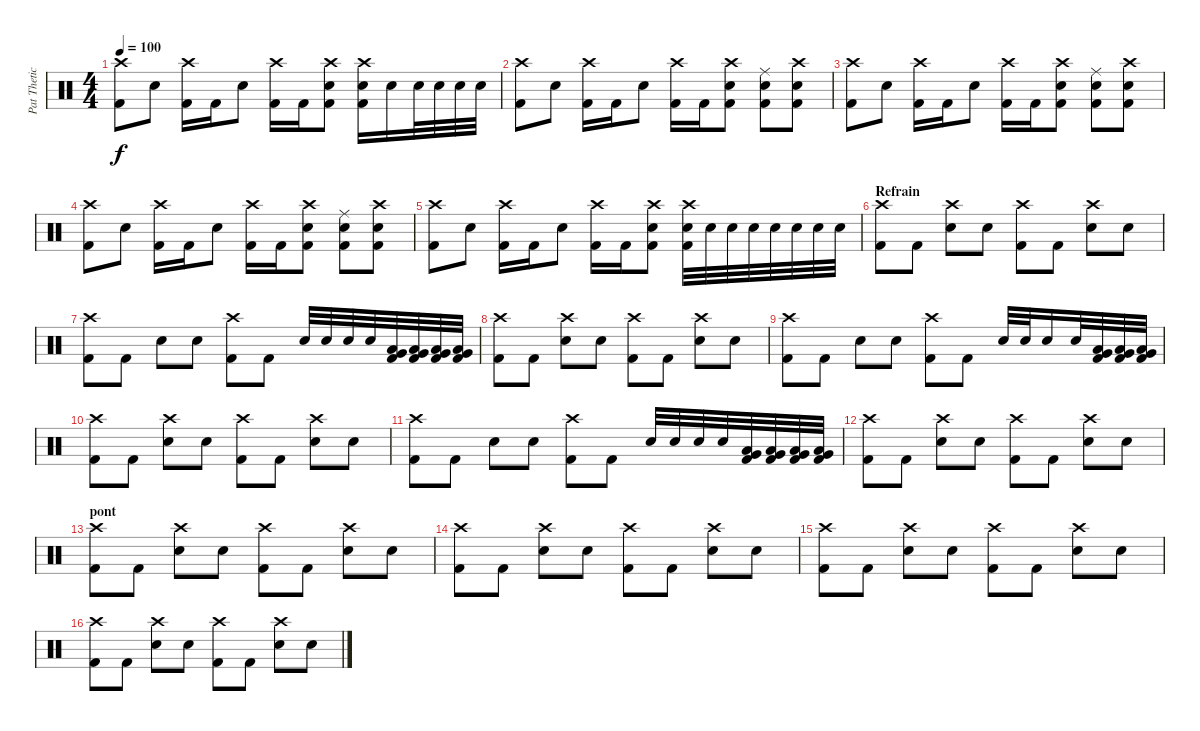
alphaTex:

\track ("Pat Thetic" "Pat Thetic") {instrument percussion}
\staff {score}
\articulation defaults
\ts (4 4)
\tempo 100
\clef neutral
\ks c
("Crash high (hit)" "Kick (hit) 2").8{dy f} "Snare (hit) 2".8 ("Crash high (hit)" "Kick (hit) 2").16 "Kick (hit) 2".16 "Snare (hit) 2".8 ("Crash high (hit)" "Kick (hit) 2").16 "Kick (hit) 2".16 ("Kick (hit) 2" "Crash high (hit)" "Snare (hit) 2").8 ("Kick (hit) 2" "Crash high (hit)" "Snare (hit) 2").16 "Snare (hit) 2".16 "Snare (hit) 2".32 "Snare (hit) 2".32 "Snare (hit) 2".32 "Snare (hit) 2".32 |
("Crash high (hit)" "Kick (hit) 2").8 "Snare (hit) 2".8 ("Crash high (hit)" "Kick (hit) 2").16 "Kick (hit) 2".16 "Snare (hit) 2".8 ("Crash high (hit)" "Kick (hit) 2").16 "Kick (hit) 2".16 ("Kick (hit) 2" "Crash high (hit)" "Snare (hit) 2").8 ("Kick (hit) 2" "Ride (middle)" "Snare (hit) 2").8 ("Kick (hit) 2" "Crash high (hit)" "Snare (hit) 2").8 |
("Crash high (hit)" "Kick (hit) 2").8 "Snare (hit) 2".8 ("Crash high (hit)" "Kick (hit) 2").16 "Kick (hit) 2".16 "Snare (hit) 2".8 ("Crash high (hit)" "Kick (hit) 2").16 "Kick (hit) 2".16 ("Kick (hit) 2" "Crash high (hit)" "Snare (hit) 2").8 ("Kick (hit) 2" "Ride (middle)" "Snare (hit) 2").8 ("Kick (hit) 2" "Crash high (hit)" "Snare (hit) 2").8 |
("Crash high (hit)" "Kick (hit) 2").8 "Snare (hit) 2".8 ("Crash high (hit)" "Kick (hit) 2").16 "Kick (hit) 2".16 "Snare (hit) 2".8 ("Crash high (hit)" "Kick (hit) 2").16 "Kick (hit) 2".16 ("Kick (hit) 2" "Crash high (hit)" "Snare (hit) 2").8 ("Kick (hit) 2" "Ride (middle)" "Snare (hit) 2").8 ("Kick (hit) 2" "Crash high (hit)" "Snare (hit) 2").8 |
("Crash high (hit)" "Kick (hit) 2").8 "Snare (hit) 2".8 ("Crash high (hit)" "Kick (hit) 2").16 "Kick (hit) 2".16 "Snare (hit) 2".8 ("Crash high (hit)" "Kick (hit) 2").16 "Kick (hit) 2".16 ("Kick (hit) 2" "Crash high (hit)" "Snare (hit) 2").8 ("Kick (hit) 2" "Crash high (hit)" "Snare (hit) 2").32 "Snare (hit) 2".32 "Snare (hit) 2".32 "Snare (hit) 2".32 "Snare (hit) 2".32 "Snare (hit) 2".32 "Snare (hit) 2".32 "Snare (hit) 2".32 |
\section ("" "Refrain")
("Crash high (hit)" "Kick (hit) 2").8 "Kick (hit) 2".8 ("Crash high (hit)" "Snare (hit) 2").8 "Snare (hit) 2".8 ("Crash high (hit)" "Kick (hit) 2").8 "Kick (hit) 2".8 ("Crash high (hit)" "Snare (hit) 2").8 "Snare (hit) 2".8 |
("Crash high (hit)" "Kick (hit) 2").8 "Kick (hit) 2".8 "Snare (hit) 2".8 "Snare (hit) 2".8 ("Crash high (hit)" "Kick (hit) 2").8 "Kick (hit) 2".8 "Snare (hit) 2".32 "Snare (hit) 2".32 "Snare (hit) 2".32 "Snare (hit) 2".32 ("Kick (hit) 2" "Low Floor Tom (hit)" "Very Low Tom (hit)").32 ("Kick (hit) 2" "Low Floor Tom (hit)" "Very Low Tom (hit)").32 ("Kick (hit) 2" "Low Floor Tom (hit)" "Very Low Tom (hit)").32 ("Kick (hit) 2" "Low Floor Tom (hit)" "Very Low Tom (hit)").32 |
("Crash high (hit)" "Kick (hit) 2").8 "Kick (hit) 2".8 ("Crash high (hit)" "Snare (hit) 2").8 "Snare (hit) 2".8 ("Crash high (hit)" "Kick (hit) 2").8 "Kick (hit) 2".8 ("Crash high (hit)" "Snare (hit) 2").8 "Snare (hit) 2".8 |
("Crash high (hit)" "Kick (hit) 2").8 "Kick (hit) 2".8 "Snare (hit) 2".8 "Snare (hit) 2".8 ("Crash high (hit)" "Kick (hit) 2").8 "Kick (hit) 2".8 "Snare (hit) 2".32 "Snare (hit) 2".32 "Snare (hit) 2".16 "Snare (hit) 2".32 ("Kick (hit) 2" "Low Floor Tom (hit)" "Very Low Tom (hit)").32 ("Kick (hit) 2" "Low Floor Tom (hit)" "Very Low Tom (hit)").32 ("Kick (hit) 2" "Low Floor Tom (hit)" "Very Low Tom (hit)").32 |
("Crash high (hit)" "Kick (hit) 2").8 "Kick (hit) 2".8 ("Crash high (hit)" "Snare (hit) 2").8 "Snare (hit) 2".8 ("Crash high (hit)" "Kick (hit) 2").8 "Kick (hit) 2".8 ("Crash high (hit)" "Snare (hit) 2").8 "Snare (hit) 2".8 |
("Crash high (hit)" "Kick (hit) 2").8 "Kick (hit) 2".8 "Snare (hit) 2".8 "Snare (hit) 2".8 ("Crash high (hit)" "Kick (hit) 2").8 "Kick (hit) 2".8 "Snare (hit) 2".32 "Snare (hit) 2".32 "Snare (hit) 2".32 "Snare (hit) 2".32 ("Kick (hit) 2" "Low Floor Tom (hit)" "Very Low Tom (hit)").32 ("Kick (hit) 2" "Low Floor Tom (hit)" "Very Low Tom (hit)").32 ("Kick (hit) 2" "Low Floor Tom (hit)" "Very Low Tom (hit)").32 ("Kick (hit) 2" "Low Floor Tom (hit)" "Very Low Tom (hit)").32 |
("Crash high (hit)" "Kick (hit) 2").8 "Kick (hit) 2".8 ("Crash high (hit)" "Snare (hit) 2").8 "Snare (hit) 2".8 ("Crash high (hit)" "Kick (hit) 2").8 "Kick (hit) 2".8 ("Crash high (hit)" "Snare (hit) 2").8 "Snare (hit) 2".8 |
\section ("" "pont")
("Crash high (hit)" "Kick (hit) 2").8 "Kick (hit) 2".8 ("Crash high (hit)" "Snare (hit) 2").8 "Snare (hit) 2".8 ("Crash high (hit)" "Kick (hit) 2").8 "Kick (hit) 2".8 ("Crash high (hit)" "Snare (hit) 2").8 "Snare (hit) 2".8 |
("Crash high (hit)" "Kick (hit) 2").8 "Kick (hit) 2".8 ("Crash high (hit)" "Snare (hit) 2").8 "Snare (hit) 2".8 ("Crash high (hit)" "Kick (hit) 2").8 "Kick (hit) 2".8 ("Crash high (hit)" "Snare (hit) 2").8 "Snare (hit) 2".8 |
("Crash high (hit)" "Kick (hit) 2").8 "Kick (hit) 2".8 ("Crash high (hit)" "Snare (hit) 2").8 "Snare (hit) 2".8 ("Crash high (hit)" "Kick (hit) 2").8 "Kick (hit) 2".8 ("Crash high (hit)" "Snare (hit) 2").8 "Snare (hit) 2".8 |
("Crash high (hit)" "Kick (hit) 2").8 "Kick (hit) 2".8 ("Crash high (hit)" "Snare (hit) 2").8 "Snare (hit) 2".8 ("Crash high (hit)" "Kick (hit) 2").8 "Kick (hit) 2".8 ("Crash high (hit)" "Snare (hit) 2").8 "Snare (hit) 2".8
